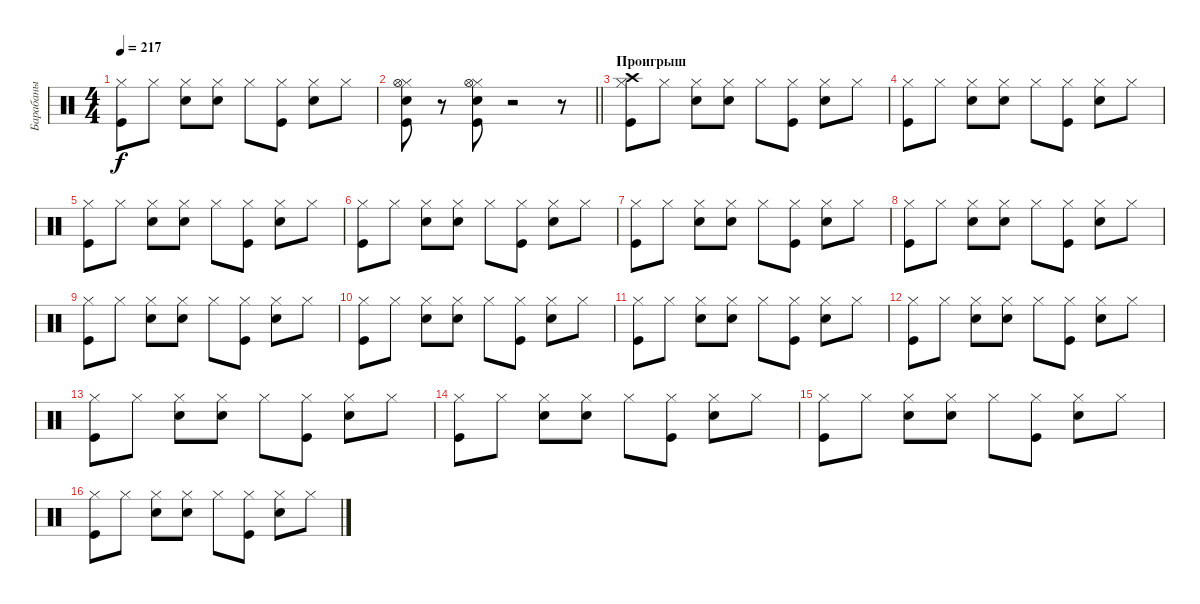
\track ("Барабаны" "Барабаны") {instrument percussion}
\staff {score}
\articulation defaults
\ts (4 4)
\tempo 217
\clef neutral
\ks c
("Kick (hit)" "Hi-Hat (closed)").8{dy f} "Hi-Hat (closed)".8 ("Snare (hit) 2" "Hi-Hat (closed)").8 ("Snare (hit) 2" "Hi-Hat (closed)").8 "Hi-Hat (closed)".8 ("Kick (hit)" "Hi-Hat (closed)").8 ("Snare (hit) 2" "Hi-Hat (closed)").8 "Hi-Hat (closed)".8 |
\barLineRight lightlight
("Kick (hit)" "Snare (hit) 2" "Hi-Hat (closed)" "Hi-Hat (open)").8 r.8 ("Kick (hit)" "Snare (hit) 2" "Hi-Hat (closed)" "Hi-Hat (open)").8 r.2 r.8 |
\section ("" "Проигрыш")
("Kick (hit)" "Hi-Hat (closed)" "Crash high (hit)").8 "Hi-Hat (closed)".8 ("Snare (hit) 2" "Hi-Hat (closed)").8 ("Snare (hit) 2" "Hi-Hat (closed)").8 "Hi-Hat (closed)".8 ("Kick (hit)" "Hi-Hat (closed)").8 ("Snare (hit) 2" "Hi-Hat (closed)").8 "Hi-Hat (closed)".8 |
("Kick (hit)" "Hi-Hat (closed)").8 "Hi-Hat (closed)".8 ("Snare (hit) 2" "Hi-Hat (closed)").8 ("Snare (hit) 2" "Hi-Hat (closed)").8 "Hi-Hat (closed)".8 ("Kick (hit)" "Hi-Hat (closed)").8 ("Snare (hit) 2" "Hi-Hat (closed)").8 "Hi-Hat (closed)".8 |
("Kick (hit)" "Hi-Hat (closed)").8 "Hi-Hat (closed)".8 ("Snare (hit) 2" "Hi-Hat (closed)").8 ("Snare (hit) 2" "Hi-Hat (closed)").8 "Hi-Hat (closed)".8 ("Kick (hit)" "Hi-Hat (closed)").8 ("Snare (hit) 2" "Hi-Hat (closed)").8 "Hi-Hat (closed)".8 |
("Kick (hit)" "Hi-Hat (closed)").8 "Hi-Hat (closed)".8 ("Snare (hit) 2" "Hi-Hat (closed)").8 ("Snare (hit) 2" "Hi-Hat (closed)").8 "Hi-Hat (closed)".8 ("Kick (hit)" "Hi-Hat (closed)").8 ("Snare (hit) 2" "Hi-Hat (closed)").8 "Hi-Hat (closed)".8 |
("Kick (hit)" "Hi-Hat (closed)").8 "Hi-Hat (closed)".8 ("Snare (hit) 2" "Hi-Hat (closed)").8 ("Snare (hit) 2" "Hi-Hat (closed)").8 "Hi-Hat (closed)".8 ("Kick (hit)" "Hi-Hat (closed)").8 ("Snare (hit) 2" "Hi-Hat (closed)").8 "Hi-Hat (closed)".8 |
("Kick (hit)" "Hi-Hat (closed)").8 "Hi-Hat (closed)".8 ("Snare (hit) 2" "Hi-Hat (closed)").8 ("Snare (hit) 2" "Hi-Hat (closed)").8 "Hi-Hat (closed)".8 ("Kick (hit)" "Hi-Hat (closed)").8 ("Snare (hit) 2" "Hi-Hat (closed)").8 "Hi-Hat (closed)".8 |
("Kick (hit)" "Hi-Hat (closed)").8 "Hi-Hat (closed)".8 ("Snare (hit) 2" "Hi-Hat (closed)").8 ("Snare (hit) 2" "Hi-Hat (closed)").8 "Hi-Hat (closed)".8 ("Kick (hit)" "Hi-Hat (closed)").8 ("Snare (hit) 2" "Hi-Hat (closed)").8 "Hi-Hat (closed)".8 |
("Kick (hit)" "Hi-Hat (closed)").8 "Hi-Hat (closed)".8 ("Snare (hit) 2" "Hi-Hat (closed)").8 ("Snare (hit) 2" "Hi-Hat (closed)").8 "Hi-Hat (closed)".8 ("Kick (hit)" "Hi-Hat (closed)").8 ("Snare (hit) 2" "Hi-Hat (closed)").8 "Hi-Hat (closed)".8 |
("Kick (hit)" "Hi-Hat (closed)").8 "Hi-Hat (closed)".8 ("Snare (hit) 2" "Hi-Hat (closed)").8 ("Snare (hit) 2" "Hi-Hat (closed)").8 "Hi-Hat (closed)".8 ("Kick (hit)" "Hi-Hat (closed)").8 ("Snare (hit) 2" "Hi-Hat (closed)").8 "Hi-Hat (closed)".8 |
("Kick (hit)" "Hi-Hat (closed)").8 "Hi-Hat (closed)".8 ("Snare (hit) 2" "Hi-Hat (closed)").8 ("Snare (hit) 2" "Hi-Hat (closed)").8 "Hi-Hat (closed)".8 ("Kick (hit)" "Hi-Hat (closed)").8 ("Snare (hit) 2" "Hi-Hat (closed)").8 "Hi-Hat (closed)".8 |
("Kick (hit)" "Hi-Hat (closed)").8 "Hi-Hat (closed)".8 ("Snare (hit) 2" "Hi-Hat (closed)").8 ("Snare (hit) 2" "Hi-Hat (closed)").8 "Hi-Hat (closed)".8 ("Kick (hit)" "Hi-Hat (closed)").8 ("Snare (hit) 2" "Hi-Hat (closed)").8 "Hi-Hat (closed)".8 |
("Kick (hit)" "Hi-Hat (closed)").8 "Hi-Hat (closed)".8 ("Snare (hit) 2" "Hi-Hat (closed)").8 ("Snare (hit) 2" "Hi-Hat (closed)").8 "Hi-Hat (closed)".8 ("Kick (hit)" "Hi-Hat (closed)").8 ("Snare (hit) 2" "Hi-Hat (closed)").8 "Hi-Hat (closed)".8 |
("Kick (hit)" "Hi-Hat (closed)").8 "Hi-Hat (closed)".8 ("Snare (hit) 2" "Hi-Hat (closed)").8 ("Snare (hit) 2" "Hi-Hat (closed)").8 "Hi-Hat (closed)".8 ("Kick (hit)" "Hi-Hat (closed)").8 ("Snare (hit) 2" "Hi-Hat (closed)").8 "Hi-Hat (closed)".8 |
("Kick (hit)" "Hi-Hat (closed)").8 "Hi-Hat (closed)".8 ("Snare (hit) 2" "Hi-Hat (closed)").8 ("Snare (hit) 2" "Hi-Hat (closed)").8 "Hi-Hat (closed)".8 ("Kick (hit)" "Hi-Hat (closed)").8 ("Snare (hit) 2" "Hi-Hat (closed)").8 "Hi-Hat (closed)".8
